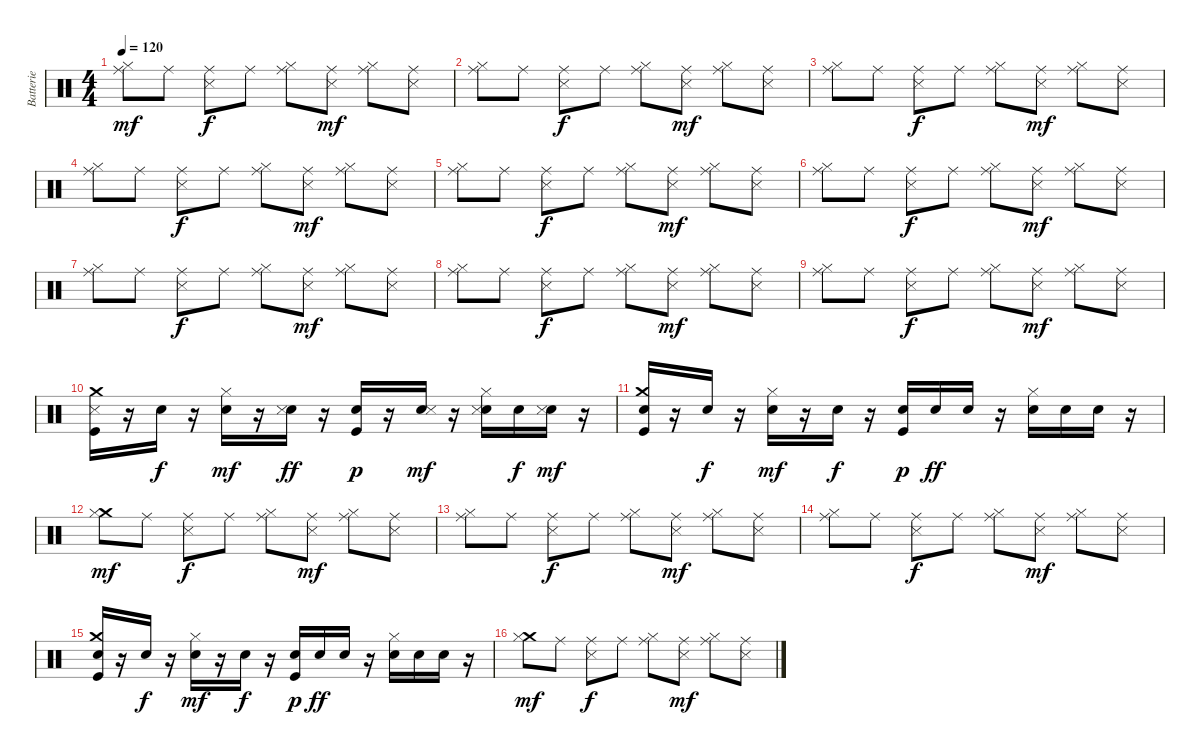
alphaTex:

\track ("Batterie" "Batterie") {instrument percussion}
\staff {score}
\articulation defaults
\ts (4 4)
\tempo 120
\clef neutral
\ks c
("Ride (middle)" "Hi-Hat (closed)").8{dy mf} "Ride (middle)".8 ("Ride (middle)" "Snare (side stick) 3").8{dy f} "Ride (middle)".8 ("Ride (middle)" "Hi-Hat (closed)").8 ("Ride (middle)" "Snare (side stick) 3").8{dy mf} ("Ride (middle)" "Hi-Hat (closed)").8 ("Ride (middle)" "Snare (side stick) 3").8 |
("Ride (middle)" "Hi-Hat (closed)").8 "Ride (middle)".8 ("Ride (middle)" "Snare (side stick) 3").8{dy f} "Ride (middle)".8 ("Ride (middle)" "Hi-Hat (closed)").8 ("Ride (middle)" "Snare (side stick) 3").8{dy mf} ("Ride (middle)" "Hi-Hat (closed)").8 ("Ride (middle)" "Snare (side stick) 3").8 |
("Ride (middle)" "Hi-Hat (closed)").8 "Ride (middle)".8 ("Ride (middle)" "Snare (side stick) 3").8{dy f} "Ride (middle)".8 ("Ride (middle)" "Hi-Hat (closed)").8 ("Ride (middle)" "Snare (side stick) 3").8{dy mf} ("Ride (middle)" "Hi-Hat (closed)").8 ("Ride (middle)" "Snare (side stick) 3").8 |
("Ride (middle)" "Hi-Hat (closed)").8 "Ride (middle)".8 ("Ride (middle)" "Snare (side stick) 3").8{dy f} "Ride (middle)".8 ("Ride (middle)" "Hi-Hat (closed)").8 ("Ride (middle)" "Snare (side stick) 3").8{dy mf} ("Ride (middle)" "Hi-Hat (closed)").8 ("Ride (middle)" "Snare (side stick) 3").8 |
("Ride (middle)" "Hi-Hat (closed)").8 "Ride (middle)".8 ("Ride (middle)" "Snare (side stick) 3").8{dy f} "Ride (middle)".8 ("Ride (middle)" "Hi-Hat (closed)").8 ("Ride (middle)" "Snare (side stick) 3").8{dy mf} ("Ride (middle)" "Hi-Hat (closed)").8 ("Ride (middle)" "Snare (side stick) 3").8 |
("Ride (middle)" "Hi-Hat (closed)").8 "Ride (middle)".8 ("Ride (middle)" "Snare (side stick) 3").8{dy f} "Ride (middle)".8 ("Ride (middle)" "Hi-Hat (closed)").8 ("Ride (middle)" "Snare (side stick) 3").8{dy mf} ("Ride (middle)" "Hi-Hat (closed)").8 ("Ride (middle)" "Snare (side stick) 3").8 |
("Ride (middle)" "Hi-Hat (closed)").8 "Ride (middle)".8 ("Ride (middle)" "Snare (side stick) 3").8{dy f} "Ride (middle)".8 ("Ride (middle)" "Hi-Hat (closed)").8 ("Ride (middle)" "Snare (side stick) 3").8{dy mf} ("Ride (middle)" "Hi-Hat (closed)").8 ("Ride (middle)" "Snare (side stick) 3").8 |
("Ride (middle)" "Hi-Hat (closed)").8 "Ride (middle)".8 ("Ride (middle)" "Snare (side stick) 3").8{dy f} "Ride (middle)".8 ("Ride (middle)" "Hi-Hat (closed)").8 ("Ride (middle)" "Snare (side stick) 3").8{dy mf} ("Ride (middle)" "Hi-Hat (closed)").8 ("Ride (middle)" "Snare (side stick) 3").8 |
("Ride (middle)" "Hi-Hat (closed)").8 "Ride (middle)".8 ("Ride (middle)" "Snare (side stick) 3").8{dy f} "Ride (middle)".8 ("Ride (middle)" "Hi-Hat (closed)").8 ("Ride (middle)" "Snare (side stick) 3").8{dy mf} ("Ride (middle)" "Hi-Hat (closed)").8 ("Ride (middle)" "Snare (side stick) 3").8 |
("Kick (hit)" "Crash medium (hit)" "Snare (side stick) 3").16 r.16 "Snare (hit) 2".16{dy f} r.16 ("Hi-Hat (closed)" "Snare (hit) 2").16{dy mf} r.16 ("Snare (hit) 2" "Snare (side stick) 3").16{dy ff} r.16 ("Kick (hit)" "Snare (hit) 2").16{dy p} r.16 ("Snare (hit) 2" "Snare (side stick) 3").16{dy mf} r.16 ("Hi-Hat (closed)" "Snare (hit) 2" "Snare (side stick) 3").16 "Snare (hit) 2".16{dy f} ("Snare (hit) 2" "Snare (side stick) 3").16{dy mf} r.16 |
("Kick (hit)" "Crash medium (hit)" "Snare (hit) 2").16 r.16 "Snare (hit) 2".16{dy f} r.16 ("Hi-Hat (closed)" "Snare (hit) 2").16{dy mf} r.16 "Snare (hit) 2".16{dy f} r.16 ("Kick (hit)" "Snare (hit) 2").16{dy p} "Snare (hit) 2".16{dy ff} "Snare (hit) 2".16 r.16 ("Hi-Hat (closed)" "Snare (hit) 2").16 "Snare (hit) 2".16 "Snare (hit) 2".16 r.16 |
("Crash medium (hit)" "Hi-Hat (closed)").8{dy mf} "Ride (middle)".8 ("Ride (middle)" "Snare (side stick) 3").8{dy f} "Ride (middle)".8 ("Ride (middle)" "Hi-Hat (closed)").8 ("Ride (middle)" "Snare (side stick) 3").8{dy mf} ("Ride (middle)" "Hi-Hat (closed)").8 ("Ride (middle)" "Snare (side stick) 3").8 |
("Ride (middle)" "Hi-Hat (closed)").8 "Ride (middle)".8 ("Ride (middle)" "Snare (side stick) 3").8{dy f} "Ride (middle)".8 ("Ride (middle)" "Hi-Hat (closed)").8 ("Ride (middle)" "Snare (side stick) 3").8{dy mf} ("Ride (middle)" "Hi-Hat (closed)").8 ("Ride (middle)" "Snare (side stick) 3").8 |
("Ride (middle)" "Hi-Hat (closed)").8 "Ride (middle)".8 ("Ride (middle)" "Snare (side stick) 3").8{dy f} "Ride (middle)".8 ("Ride (middle)" "Hi-Hat (closed)").8 ("Ride (middle)" "Snare (side stick) 3").8{dy mf} ("Ride (middle)" "Hi-Hat (closed)").8 ("Ride (middle)" "Snare (side stick) 3").8 |
("Kick (hit)" "Crash medium (hit)" "Snare (hit) 2").16 r.16 "Snare (hit) 2".16{dy f} r.16 ("Hi-Hat (closed)" "Snare (hit) 2").16{dy mf} r.16 "Snare (hit) 2".16{dy f} r.16 ("Kick (hit)" "Snare (hit) 2").16{dy p} "Snare (hit) 2".16{dy ff} "Snare (hit) 2".16 r.16 ("Hi-Hat (closed)" "Snare (hit) 2").16 "Snare (hit) 2".16 "Snare (hit) 2".16 r.16 |
("Crash medium (hit)" "Hi-Hat (closed)").8{dy mf} "Ride (middle)".8 ("Ride (middle)" "Snare (side stick) 3").8{dy f} "Ride (middle)".8 ("Ride (middle)" "Hi-Hat (closed)").8 ("Ride (middle)" "Snare (side stick) 3").8{dy mf} ("Ride (middle)" "Hi-Hat (closed)").8 ("Ride (middle)" "Snare (side stick) 3").8
